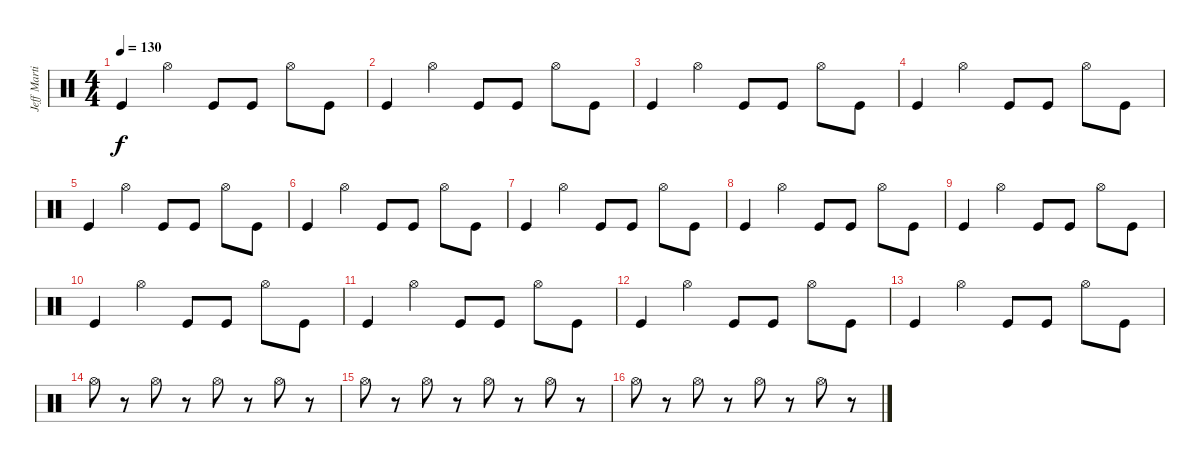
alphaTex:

\track ("Jeff Martin" "Jeff Marti") {instrument percussion}
\staff {score}
\articulation defaults
\ts (4 4)
\tempo 130
\clef neutral
\ks c "Kick (hit)".4{dy f} "Hi-Hat (open)".4 "Kick (hit)".8 "Kick (hit)".8 "Hi-Hat (open)".8 "Kick (hit)".8
|
"Kick (hit)".4 "Hi-Hat (open)".4 "Kick (hit)".8 "Kick (hit)".8 "Hi-Hat (open)".8 "Kick (hit)".8 |
"Kick (hit)".4 "Hi-Hat (open)".4 "Kick (hit)".8 "Kick (hit)".8 "Hi-Hat (open)".8 "Kick (hit)".8 |
"Kick (hit)".4 "Hi-Hat (open)".4 "Kick (hit)".8 "Kick (hit)".8 "Hi-Hat (open)".8 "Kick (hit)".8 |
"Kick (hit)".4 "Hi-Hat (open)".4 "Kick (hit)".8 "Kick (hit)".8 "Hi-Hat (open)".8 "Kick (hit)".8 |
"Kick (hit)".4 "Hi-Hat (open)".4 "Kick (hit)".8 "Kick (hit)".8 "Hi-Hat (open)".8 "Kick (hit)".8 |
"Kick (hit)".4 "Hi-Hat (open)".4 "Kick (hit)".8 "Kick (hit)".8 "Hi-Hat (open)".8 "Kick (hit)".8 |
"Kick (hit)".4 "Hi-Hat (open)".4 "Kick (hit)".8 "Kick (hit)".8 "Hi-Hat (open)".8 "Kick (hit)".8 |
"Kick (hit)".4 "Hi-Hat (open)".4 "Kick (hit)".8 "Kick (hit)".8 "Hi-Hat (open)".8 "Kick (hit)".8 |
"Kick (hit)".4 "Hi-Hat (open)".4 "Kick (hit)".8 "Kick (hit)".8 "Hi-Hat (open)".8 "Kick (hit)".8 |
"Kick (hit)".4 "Hi-Hat (open)".4 "Kick (hit)".8 "Kick (hit)".8 "Hi-Hat (open)".8 "Kick (hit)".8 |
"Kick (hit)".4 "Hi-Hat (open)".4 "Kick (hit)".8 "Kick (hit)".8 "Hi-Hat (open)".8 "Kick (hit)".8 |
"Kick (hit)".4 "Hi-Hat (open)".4 "Kick (hit)".8 "Kick (hit)".8 "Hi-Hat (open)".8 "Kick (hit)".8 |
"Hi-Hat (open)".8 r.8 "Hi-Hat (open)".8 r.8 "Hi-Hat (open)".8 r.8 "Hi-Hat (open)".8 r.8 |
"Hi-Hat (open)".8 r.8 "Hi-Hat (open)".8 r.8 "Hi-Hat (open)".8 r.8 "Hi-Hat (open)".8 r.8 |
"Hi-Hat (open)".8 r.8 "Hi-Hat (open)".8 r.8 "Hi-Hat (open)".8 r.8 "Hi-Hat (open)".8 r.8
